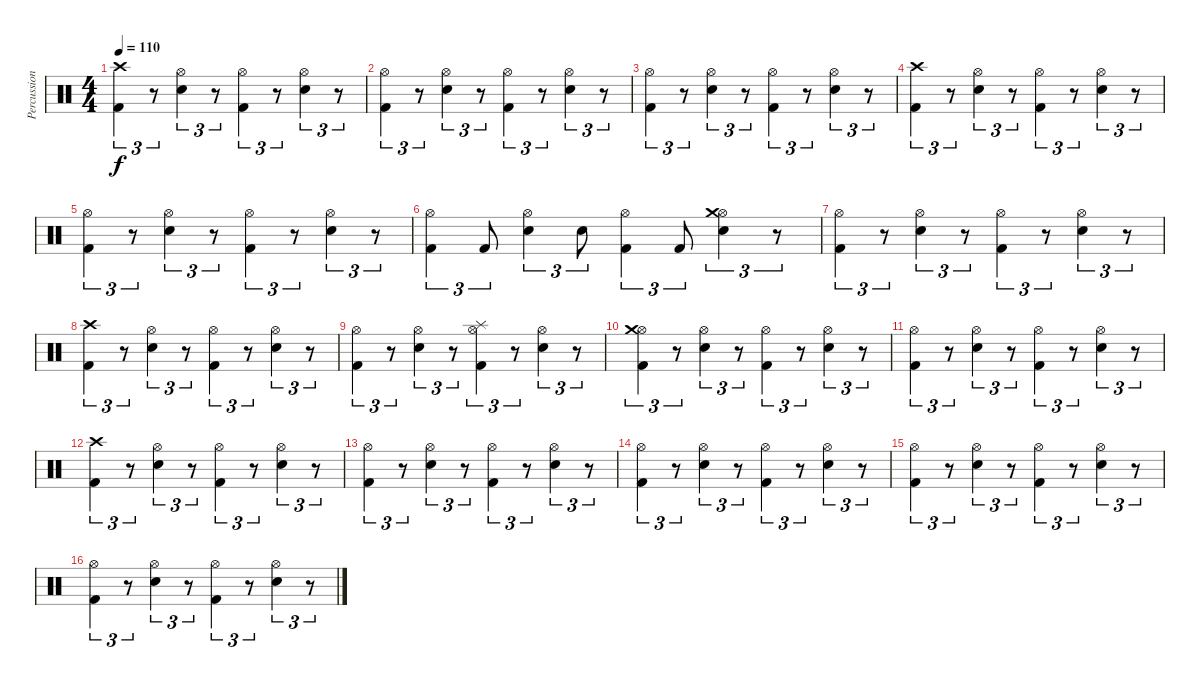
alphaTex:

\track ("Percussion" "Percussion") {instrument percussion}
\staff {score}
\articulation defaults
\ts (4 4)
\tempo 110
\clef neutral
\ks c
("Kick (hit) 2" "Crash high (hit)").4{tu (3 2) dy f} r.8{tu (3 2)} ("Electric Snare (hit)" "Hi-Hat (open)").4{tu (3 2)} r.8{tu (3 2)} ("Kick (hit) 2" "Hi-Hat (open)").4{tu (3 2)} r.8{tu (3 2)} ("Electric Snare (hit)" "Hi-Hat (open)").4{tu (3 2)} r.8{tu (3 2)} |
("Kick (hit) 2" "Hi-Hat (open)").4{tu (3 2)} r.8{tu (3 2)} ("Electric Snare (hit)" "Hi-Hat (open)").4{tu (3 2)} r.8{tu (3 2)} ("Kick (hit) 2" "Hi-Hat (open)").4{tu (3 2)} r.8{tu (3 2)} ("Electric Snare (hit)" "Hi-Hat (open)").4{tu (3 2)} r.8{tu (3 2)} |
("Kick (hit) 2" "Hi-Hat (open)").4{tu (3 2)} r.8{tu (3 2)} ("Electric Snare (hit)" "Hi-Hat (open)").4{tu (3 2)} r.8{tu (3 2)} ("Kick (hit) 2" "Hi-Hat (open)").4{tu (3 2)} r.8{tu (3 2)} ("Electric Snare (hit)" "Hi-Hat (open)").4{tu (3 2)} r.8{tu (3 2)} |
("Kick (hit) 2" "Crash high (hit)").4{tu (3 2)} r.8{tu (3 2)} ("Electric Snare (hit)" "Hi-Hat (open)").4{tu (3 2)} r.8{tu (3 2)} ("Kick (hit) 2" "Hi-Hat (open)").4{tu (3 2)} r.8{tu (3 2)} ("Electric Snare (hit)" "Hi-Hat (open)").4{tu (3 2)} r.8{tu (3 2)} |
("Kick (hit) 2" "Hi-Hat (open)").4{tu (3 2)} r.8{tu (3 2)} ("Electric Snare (hit)" "Hi-Hat (open)").4{tu (3 2)} r.8{tu (3 2)} ("Kick (hit) 2" "Hi-Hat (open)").4{tu (3 2)} r.8{tu (3 2)} ("Electric Snare (hit)" "Hi-Hat (open)").4{tu (3 2)} r.8{tu (3 2)} |
("Kick (hit) 2" "Hi-Hat (open)").4{tu (3 2)} "Kick (hit) 2".8{tu (3 2)} ("Electric Snare (hit)" "Hi-Hat (open)").4{tu (3 2)} "Electric Snare (hit)".8{tu (3 2)} ("Kick (hit) 2" "Hi-Hat (open)").4{tu (3 2)} "Kick (hit) 2".8{tu (3 2)} ("Electric Snare (hit)" "Hi-Hat (open)" "Crash medium (hit)").4{tu (3 2)} r.8{tu (3 2)} |
("Kick (hit) 2" "Hi-Hat (open)").4{tu (3 2)} r.8{tu (3 2)} ("Electric Snare (hit)" "Hi-Hat (open)").4{tu (3 2)} r.8{tu (3 2)} ("Kick (hit) 2" "Hi-Hat (open)").4{tu (3 2)} r.8{tu (3 2)} ("Electric Snare (hit)" "Hi-Hat (open)").4{tu (3 2)} r.8{tu (3 2)} |
("Kick (hit) 2" "Crash high (hit)").4{tu (3 2)} r.8{tu (3 2)} ("Electric Snare (hit)" "Hi-Hat (open)").4{tu (3 2)} r.8{tu (3 2)} ("Kick (hit) 2" "Hi-Hat (open)").4{tu (3 2)} r.8{tu (3 2)} ("Electric Snare (hit)" "Hi-Hat (open)").4{tu (3 2)} r.8{tu (3 2)} |
("Kick (hit) 2" "Hi-Hat (open)").4{tu (3 2)} r.8{tu (3 2)} ("Electric Snare (hit)" "Hi-Hat (open)").4{tu (3 2)} r.8{tu (3 2)} ("Kick (hit) 2" "Hi-Hat (open)" "Splash (hit)").4{tu (3 2)} r.8{tu (3 2)} ("Electric Snare (hit)" "Hi-Hat (open)").4{tu (3 2)} r.8{tu (3 2)} |
("Kick (hit) 2" "Hi-Hat (open)" "Crash medium (hit)").4{tu (3 2)} r.8{tu (3 2)} ("Electric Snare (hit)" "Hi-Hat (open)").4{tu (3 2)} r.8{tu (3 2)} ("Kick (hit) 2" "Hi-Hat (open)").4{tu (3 2)} r.8{tu (3 2)} ("Electric Snare (hit)" "Hi-Hat (open)").4{tu (3 2)} r.8{tu (3 2)} |
("Kick (hit) 2" "Hi-Hat (open)").4{tu (3 2)} r.8{tu (3 2)} ("Electric Snare (hit)" "Hi-Hat (open)").4{tu (3 2)} r.8{tu (3 2)} ("Kick (hit) 2" "Hi-Hat (open)").4{tu (3 2)} r.8{tu (3 2)} ("Electric Snare (hit)" "Hi-Hat (open)").4{tu (3 2)} r.8{tu (3 2)} |
("Kick (hit) 2" "Crash high (hit)").4{tu (3 2)} r.8{tu (3 2)} ("Electric Snare (hit)" "Hi-Hat (open)").4{tu (3 2)} r.8{tu (3 2)} ("Kick (hit) 2" "Hi-Hat (open)").4{tu (3 2)} r.8{tu (3 2)} ("Electric Snare (hit)" "Hi-Hat (open)").4{tu (3 2)} r.8{tu (3 2)} |
("Kick (hit) 2" "Hi-Hat (open)").4{tu (3 2)} r.8{tu (3 2)} ("Electric Snare (hit)" "Hi-Hat (open)").4{tu (3 2)} r.8{tu (3 2)} ("Kick (hit) 2" "Hi-Hat (open)").4{tu (3 2)} r.8{tu (3 2)} ("Electric Snare (hit)" "Hi-Hat (open)").4{tu (3 2)} r.8{tu (3 2)} |
("Kick (hit) 2" "Hi-Hat (open)").4{tu (3 2)} r.8{tu (3 2)} ("Electric Snare (hit)" "Hi-Hat (open)").4{tu (3 2)} r.8{tu (3 2)} ("Kick (hit) 2" "Hi-Hat (open)").4{tu (3 2)} r.8{tu (3 2)} ("Electric Snare (hit)" "Hi-Hat (open)").4{tu (3 2)} r.8{tu (3 2)} |
("Kick (hit) 2" "Hi-Hat (open)").4{tu (3 2)} r.8{tu (3 2)} ("Electric Snare (hit)" "Hi-Hat (open)").4{tu (3 2)} r.8{tu (3 2)} ("Kick (hit) 2" "Hi-Hat (open)").4{tu (3 2)} r.8{tu (3 2)} ("Electric Snare (hit)" "Hi-Hat (open)").4{tu (3 2)} r.8{tu (3 2)} |
("Kick (hit) 2" "Hi-Hat (open)").4{tu (3 2)} r.8{tu (3 2)} ("Electric Snare (hit)" "Hi-Hat (open)").4{tu (3 2)} r.8{tu (3 2)} ("Kick (hit) 2" "Hi-Hat (open)").4{tu (3 2)} r.8{tu (3 2)} ("Electric Snare (hit)" "Hi-Hat (open)").4{tu (3 2)} r.8{tu (3 2)}
